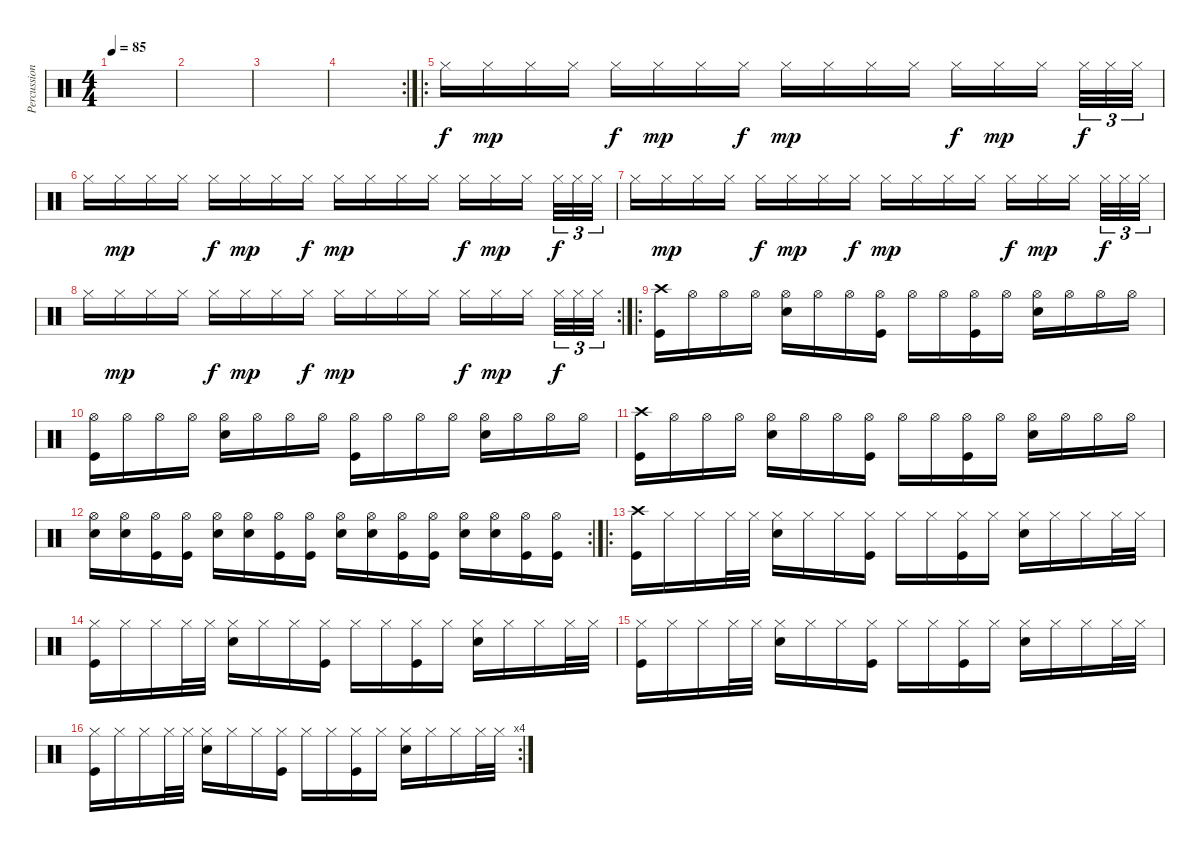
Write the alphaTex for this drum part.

\track ("Percussion" "Percussion") {instrument percussion}
\staff {score}
\articulation defaults
\ts (4 4)
\tempo 85
\clef neutral
\ks c
|
|
|
\rc 2
|
\ro "Hi-Hat (closed)".16 "Hi-Hat (closed)".16{dy mp} "Hi-Hat (closed)".16 "Hi-Hat (closed)".16 "Hi-Hat (closed)".16{dy f} "Hi-Hat (closed)".16{dy mp} "Hi-Hat (closed)".16 "Hi-Hat (closed)".16{dy f} "Hi-Hat (closed)".16{dy mp} "Hi-Hat (closed)".16 "Hi-Hat (closed)".16 "Hi-Hat (closed)".16 "Hi-Hat (closed)".16{dy f} "Hi-Hat (closed)".16{dy mp} "Hi-Hat (closed)".16 "Hi-Hat (closed)".32{tu (3 2) dy f} "Hi-Hat (closed)".32{tu (3 2)} "Hi-Hat (closed)".32{tu (3 2)}
|
"Hi-Hat (closed)".16 "Hi-Hat (closed)".16{dy mp} "Hi-Hat (closed)".16 "Hi-Hat (closed)".16 "Hi-Hat (closed)".16{dy f} "Hi-Hat (closed)".16{dy mp} "Hi-Hat (closed)".16 "Hi-Hat (closed)".16{dy f} "Hi-Hat (closed)".16{dy mp} "Hi-Hat (closed)".16 "Hi-Hat (closed)".16 "Hi-Hat (closed)".16 "Hi-Hat (closed)".16{dy f} "Hi-Hat (closed)".16{dy mp} "Hi-Hat (closed)".16 "Hi-Hat (closed)".32{tu (3 2) dy f} "Hi-Hat (closed)".32{tu (3 2)} "Hi-Hat (closed)".32{tu (3 2)} |
"Hi-Hat (closed)".16 "Hi-Hat (closed)".16{dy mp} "Hi-Hat (closed)".16 "Hi-Hat (closed)".16 "Hi-Hat (closed)".16{dy f} "Hi-Hat (closed)".16{dy mp} "Hi-Hat (closed)".16 "Hi-Hat (closed)".16{dy f} "Hi-Hat (closed)".16{dy mp} "Hi-Hat (closed)".16 "Hi-Hat (closed)".16 "Hi-Hat (closed)".16 "Hi-Hat (closed)".16{dy f} "Hi-Hat (closed)".16{dy mp} "Hi-Hat (closed)".16 "Hi-Hat (closed)".32{tu (3 2) dy f} "Hi-Hat (closed)".32{tu (3 2)} "Hi-Hat (closed)".32{tu (3 2)} |
\rc 2 "Hi-Hat (closed)".16 "Hi-Hat (closed)".16{dy mp} "Hi-Hat (closed)".16 "Hi-Hat (closed)".16 "Hi-Hat (closed)".16{dy f} "Hi-Hat (closed)".16{dy mp} "Hi-Hat (closed)".16 "Hi-Hat (closed)".16{dy f} "Hi-Hat (closed)".16{dy mp} "Hi-Hat (closed)".16 "Hi-Hat (closed)".16 "Hi-Hat (closed)".16 "Hi-Hat (closed)".16{dy f} "Hi-Hat (closed)".16{dy mp} "Hi-Hat (closed)".16 "Hi-Hat (closed)".32{tu (3 2) dy f} "Hi-Hat (closed)".32{tu (3 2)} "Hi-Hat (closed)".32{tu (3 2)}
|
\ro
("Crash high (hit)" "Kick (hit)").16 "Hi-Hat (open)".16 "Hi-Hat (open)".16 "Hi-Hat (open)".16 ("Hi-Hat (open)" "Snare (hit) 2").16 "Hi-Hat (open)".16 "Hi-Hat (open)".16 ("Hi-Hat (open)" "Kick (hit)").16 "Hi-Hat (open)".16 "Hi-Hat (open)".16 ("Hi-Hat (open)" "Kick (hit)").16 "Hi-Hat (open)".16 ("Hi-Hat (open)" "Snare (hit) 2").16 "Hi-Hat (open)".16 "Hi-Hat (open)".16 "Hi-Hat (open)".16 |
("Hi-Hat (open)" "Kick (hit)").16 "Hi-Hat (open)".16 "Hi-Hat (open)".16 "Hi-Hat (open)".16 ("Hi-Hat (open)" "Snare (hit) 2").16 "Hi-Hat (open)".16 "Hi-Hat (open)".16 "Hi-Hat (open)".16 ("Hi-Hat (open)" "Kick (hit)").16 "Hi-Hat (open)".16 "Hi-Hat (open)".16 "Hi-Hat (open)".16 ("Hi-Hat (open)" "Snare (hit) 2").16 "Hi-Hat (open)".16 "Hi-Hat (open)".16 "Hi-Hat (open)".16 |
("Crash high (hit)" "Kick (hit)").16 "Hi-Hat (open)".16 "Hi-Hat (open)".16 "Hi-Hat (open)".16 ("Hi-Hat (open)" "Snare (hit) 2").16 "Hi-Hat (open)".16 "Hi-Hat (open)".16 ("Hi-Hat (open)" "Kick (hit)").16 "Hi-Hat (open)".16 "Hi-Hat (open)".16 ("Hi-Hat (open)" "Kick (hit)").16 "Hi-Hat (open)".16 ("Hi-Hat (open)" "Snare (hit) 2").16 "Hi-Hat (open)".16 "Hi-Hat (open)".16 "Hi-Hat (open)".16 |
\rc 2
("Hi-Hat (open)" "Snare (hit) 2").16 ("Hi-Hat (open)" "Snare (hit) 2").16 ("Hi-Hat (open)" "Kick (hit)").16 ("Hi-Hat (open)" "Kick (hit)").16 ("Hi-Hat (open)" "Snare (hit) 2").16 ("Hi-Hat (open)" "Snare (hit) 2").16 ("Hi-Hat (open)" "Kick (hit)").16 ("Hi-Hat (open)" "Kick (hit)").16 ("Hi-Hat (open)" "Snare (hit) 2").16 ("Hi-Hat (open)" "Snare (hit) 2").16 ("Hi-Hat (open)" "Kick (hit)").16 ("Hi-Hat (open)" "Kick (hit)").16 ("Hi-Hat (open)" "Snare (hit) 2").16 ("Hi-Hat (open)" "Snare (hit) 2").16 ("Hi-Hat (open)" "Kick (hit)").16 ("Hi-Hat (open)" "Kick (hit)").16 |
\ro
("Crash high (hit)" "Kick (hit)").16 "Hi-Hat (closed)".16 "Hi-Hat (closed)".16 "Hi-Hat (closed)".32 "Hi-Hat (closed)".32 ("Hi-Hat (closed)" "Snare (hit) 2").16 "Hi-Hat (closed)".16 "Hi-Hat (closed)".16 ("Hi-Hat (closed)" "Kick (hit)").16 "Hi-Hat (closed)".16 "Hi-Hat (closed)".16 ("Hi-Hat (closed)" "Kick (hit)").16 "Hi-Hat (closed)".16 ("Hi-Hat (closed)" "Snare (hit) 2").16 "Hi-Hat (closed)".16 "Hi-Hat (closed)".16 "Hi-Hat (closed)".32 "Hi-Hat (closed)".32 |
("Hi-Hat (closed)" "Kick (hit)").16 "Hi-Hat (closed)".16 "Hi-Hat (closed)".16 "Hi-Hat (closed)".32 "Hi-Hat (closed)".32 ("Hi-Hat (closed)" "Snare (hit) 2").16 "Hi-Hat (closed)".16 "Hi-Hat (closed)".16 ("Hi-Hat (closed)" "Kick (hit)").16 "Hi-Hat (closed)".16 "Hi-Hat (closed)".16 ("Hi-Hat (closed)" "Kick (hit)").16 "Hi-Hat (closed)".16 ("Hi-Hat (closed)" "Snare (hit) 2").16 "Hi-Hat (closed)".16 "Hi-Hat (closed)".16 "Hi-Hat (closed)".32 "Hi-Hat (closed)".32 |
("Hi-Hat (closed)" "Kick (hit)").16 "Hi-Hat (closed)".16 "Hi-Hat (closed)".16 "Hi-Hat (closed)".32 "Hi-Hat (closed)".32 ("Hi-Hat (closed)" "Snare (hit) 2").16 "Hi-Hat (closed)".16 "Hi-Hat (closed)".16 ("Hi-Hat (closed)" "Kick (hit)").16 "Hi-Hat (closed)".16 "Hi-Hat (closed)".16 ("Hi-Hat (closed)" "Kick (hit)").16 "Hi-Hat (closed)".16 ("Hi-Hat (closed)" "Snare (hit) 2").16 "Hi-Hat (closed)".16 "Hi-Hat (closed)".16 "Hi-Hat (closed)".32 "Hi-Hat (closed)".32 |
\rc 4
("Hi-Hat (closed)" "Kick (hit)").16 "Hi-Hat (closed)".16 "Hi-Hat (closed)".16 "Hi-Hat (closed)".32 "Hi-Hat (closed)".32 ("Hi-Hat (closed)" "Snare (hit) 2").16 "Hi-Hat (closed)".16 "Hi-Hat (closed)".16 ("Hi-Hat (closed)" "Kick (hit)").16 "Hi-Hat (closed)".16 "Hi-Hat (closed)".16 ("Hi-Hat (closed)" "Kick (hit)").16 "Hi-Hat (closed)".16 ("Hi-Hat (closed)" "Snare (hit) 2").16 "Hi-Hat (closed)".16 "Hi-Hat (closed)".16 "Hi-Hat (closed)".32 "Hi-Hat (closed)".32
